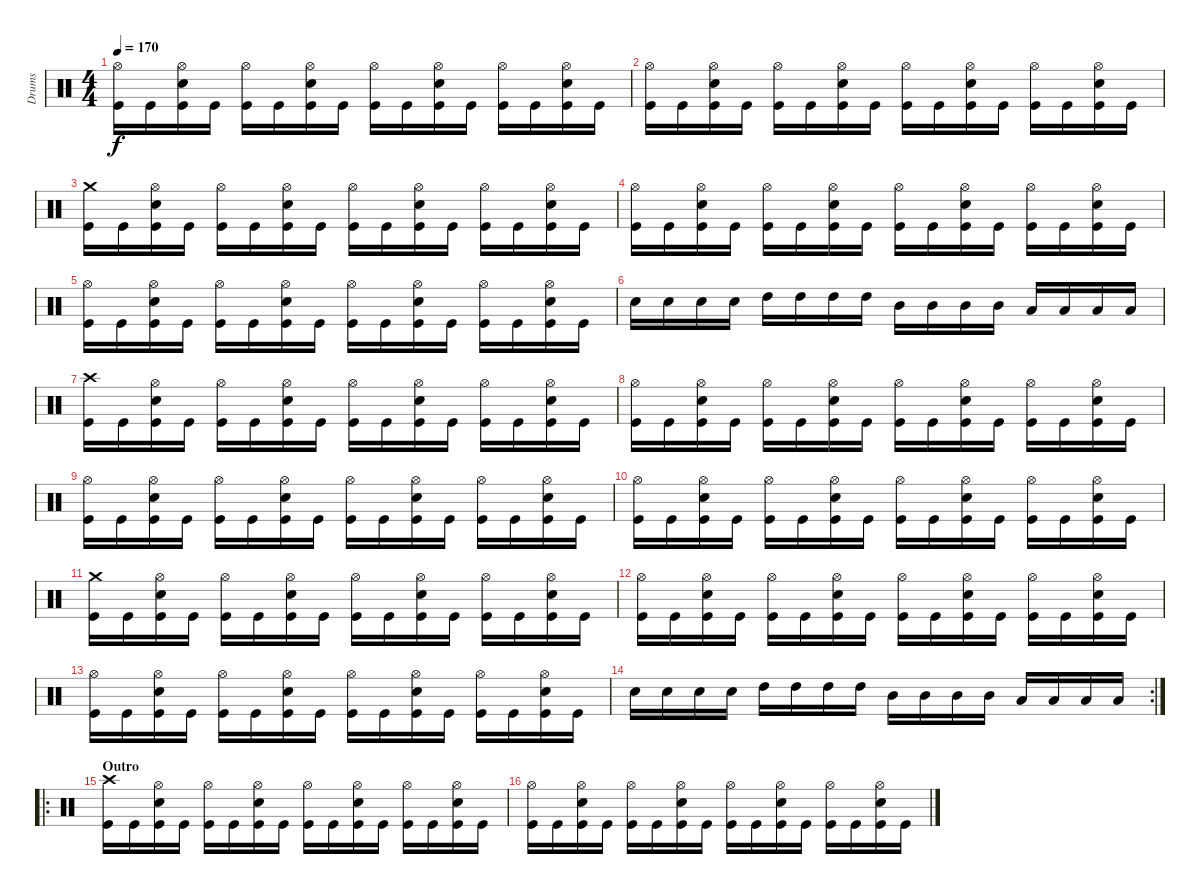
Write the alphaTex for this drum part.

\track ("Drums" "Drums") {instrument percussion}
\staff {score}
\articulation defaults
\ts (4 4)
\tempo 170
\clef neutral
\ks c
("Hi-Hat (open)" "Kick (hit)").16{dy f} "Kick (hit)".16 ("Hi-Hat (open)" "Snare (hit) 2" "Kick (hit)").16 "Kick (hit)".16 ("Hi-Hat (open)" "Kick (hit)").16 "Kick (hit)".16 ("Hi-Hat (open)" "Snare (hit) 2" "Kick (hit)").16 "Kick (hit)".16 ("Hi-Hat (open)" "Kick (hit)").16 "Kick (hit)".16 ("Hi-Hat (open)" "Snare (hit) 2" "Kick (hit)").16 "Kick (hit)".16 ("Hi-Hat (open)" "Kick (hit)").16 "Kick (hit)".16 ("Hi-Hat (open)" "Snare (hit) 2" "Kick (hit)").16 "Kick (hit)".16 |
("Hi-Hat (open)" "Kick (hit)").16 "Kick (hit)".16 ("Hi-Hat (open)" "Snare (hit) 2" "Kick (hit)").16 "Kick (hit)".16 ("Hi-Hat (open)" "Kick (hit)").16 "Kick (hit)".16 ("Hi-Hat (open)" "Snare (hit) 2" "Kick (hit)").16 "Kick (hit)".16 ("Hi-Hat (open)" "Kick (hit)").16 "Kick (hit)".16 ("Hi-Hat (open)" "Snare (hit) 2" "Kick (hit)").16 "Kick (hit)".16 ("Hi-Hat (open)" "Kick (hit)").16 "Kick (hit)".16 ("Hi-Hat (open)" "Snare (hit) 2" "Kick (hit)").16 "Kick (hit)".16 |
("Crash medium (hit)" "Kick (hit)").16 "Kick (hit)".16 ("Hi-Hat (open)" "Snare (hit) 2" "Kick (hit)").16 "Kick (hit)".16 ("Hi-Hat (open)" "Kick (hit)").16 "Kick (hit)".16 ("Hi-Hat (open)" "Snare (hit) 2" "Kick (hit)").16 "Kick (hit)".16 ("Hi-Hat (open)" "Kick (hit)").16 "Kick (hit)".16 ("Hi-Hat (open)" "Snare (hit) 2" "Kick (hit)").16 "Kick (hit)".16 ("Hi-Hat (open)" "Kick (hit)").16 "Kick (hit)".16 ("Hi-Hat (open)" "Snare (hit) 2" "Kick (hit)").16 "Kick (hit)".16 |
("Hi-Hat (open)" "Kick (hit)").16 "Kick (hit)".16 ("Hi-Hat (open)" "Snare (hit) 2" "Kick (hit)").16 "Kick (hit)".16 ("Hi-Hat (open)" "Kick (hit)").16 "Kick (hit)".16 ("Hi-Hat (open)" "Snare (hit) 2" "Kick (hit)").16 "Kick (hit)".16 ("Hi-Hat (open)" "Kick (hit)").16 "Kick (hit)".16 ("Hi-Hat (open)" "Snare (hit) 2" "Kick (hit)").16 "Kick (hit)".16 ("Hi-Hat (open)" "Kick (hit)").16 "Kick (hit)".16 ("Hi-Hat (open)" "Snare (hit) 2" "Kick (hit)").16 "Kick (hit)".16 |
("Hi-Hat (open)" "Kick (hit)").16 "Kick (hit)".16 ("Hi-Hat (open)" "Snare (hit) 2" "Kick (hit)").16 "Kick (hit)".16 ("Hi-Hat (open)" "Kick (hit)").16 "Kick (hit)".16 ("Hi-Hat (open)" "Snare (hit) 2" "Kick (hit)").16 "Kick (hit)".16 ("Hi-Hat (open)" "Kick (hit)").16 "Kick (hit)".16 ("Hi-Hat (open)" "Snare (hit) 2" "Kick (hit)").16 "Kick (hit)".16 ("Hi-Hat (open)" "Kick (hit)").16 "Kick (hit)".16 ("Hi-Hat (open)" "Snare (hit) 2" "Kick (hit)").16 "Kick (hit)".16 |
"Snare (hit) 2".16 "Snare (hit) 2".16 "Snare (hit) 2".16 "Snare (hit) 2".16 "High Tom (hit)".16 "High Tom (hit)".16 "High Tom (hit)".16 "High Tom (hit)".16 "Mid Tom (hit)".16 "Mid Tom (hit)".16 "Mid Tom (hit)".16 "Mid Tom (hit)".16 "Low Tom (hit)".16 "Low Tom (hit)".16 "Low Tom (hit)".16 "Low Tom (hit)".16 |
("Crash high (hit)" "Kick (hit)").16 "Kick (hit)".16 ("Hi-Hat (open)" "Snare (hit) 2" "Kick (hit)").16 "Kick (hit)".16 ("Hi-Hat (open)" "Kick (hit)").16 "Kick (hit)".16 ("Hi-Hat (open)" "Snare (hit) 2" "Kick (hit)").16 "Kick (hit)".16 ("Hi-Hat (open)" "Kick (hit)").16 "Kick (hit)".16 ("Hi-Hat (open)" "Snare (hit) 2" "Kick (hit)").16 "Kick (hit)".16 ("Hi-Hat (open)" "Kick (hit)").16 "Kick (hit)".16 ("Hi-Hat (open)" "Snare (hit) 2" "Kick (hit)").16 "Kick (hit)".16 |
("Hi-Hat (open)" "Kick (hit)").16 "Kick (hit)".16 ("Hi-Hat (open)" "Snare (hit) 2" "Kick (hit)").16 "Kick (hit)".16 ("Hi-Hat (open)" "Kick (hit)").16 "Kick (hit)".16 ("Hi-Hat (open)" "Snare (hit) 2" "Kick (hit)").16 "Kick (hit)".16 ("Hi-Hat (open)" "Kick (hit)").16 "Kick (hit)".16 ("Hi-Hat (open)" "Snare (hit) 2" "Kick (hit)").16 "Kick (hit)".16 ("Hi-Hat (open)" "Kick (hit)").16 "Kick (hit)".16 ("Hi-Hat (open)" "Snare (hit) 2" "Kick (hit)").16 "Kick (hit)".16 |
("Hi-Hat (open)" "Kick (hit)").16 "Kick (hit)".16 ("Hi-Hat (open)" "Snare (hit) 2" "Kick (hit)").16 "Kick (hit)".16 ("Hi-Hat (open)" "Kick (hit)").16 "Kick (hit)".16 ("Hi-Hat (open)" "Snare (hit) 2" "Kick (hit)").16 "Kick (hit)".16 ("Hi-Hat (open)" "Kick (hit)").16 "Kick (hit)".16 ("Hi-Hat (open)" "Snare (hit) 2" "Kick (hit)").16 "Kick (hit)".16 ("Hi-Hat (open)" "Kick (hit)").16 "Kick (hit)".16 ("Hi-Hat (open)" "Snare (hit) 2" "Kick (hit)").16 "Kick (hit)".16 |
("Hi-Hat (open)" "Kick (hit)").16 "Kick (hit)".16 ("Hi-Hat (open)" "Snare (hit) 2" "Kick (hit)").16 "Kick (hit)".16 ("Hi-Hat (open)" "Kick (hit)").16 "Kick (hit)".16 ("Hi-Hat (open)" "Snare (hit) 2" "Kick (hit)").16 "Kick (hit)".16 ("Hi-Hat (open)" "Kick (hit)").16 "Kick (hit)".16 ("Hi-Hat (open)" "Snare (hit) 2" "Kick (hit)").16 "Kick (hit)".16 ("Hi-Hat (open)" "Kick (hit)").16 "Kick (hit)".16 ("Hi-Hat (open)" "Snare (hit) 2" "Kick (hit)").16 "Kick (hit)".16 |
("Crash medium (hit)" "Kick (hit)").16 "Kick (hit)".16 ("Hi-Hat (open)" "Snare (hit) 2" "Kick (hit)").16 "Kick (hit)".16 ("Hi-Hat (open)" "Kick (hit)").16 "Kick (hit)".16 ("Hi-Hat (open)" "Snare (hit) 2" "Kick (hit)").16 "Kick (hit)".16 ("Hi-Hat (open)" "Kick (hit)").16 "Kick (hit)".16 ("Hi-Hat (open)" "Snare (hit) 2" "Kick (hit)").16 "Kick (hit)".16 ("Hi-Hat (open)" "Kick (hit)").16 "Kick (hit)".16 ("Hi-Hat (open)" "Snare (hit) 2" "Kick (hit)").16 "Kick (hit)".16 |
("Hi-Hat (open)" "Kick (hit)").16 "Kick (hit)".16 ("Hi-Hat (open)" "Snare (hit) 2" "Kick (hit)").16 "Kick (hit)".16 ("Hi-Hat (open)" "Kick (hit)").16 "Kick (hit)".16 ("Hi-Hat (open)" "Snare (hit) 2" "Kick (hit)").16 "Kick (hit)".16 ("Hi-Hat (open)" "Kick (hit)").16 "Kick (hit)".16 ("Hi-Hat (open)" "Snare (hit) 2" "Kick (hit)").16 "Kick (hit)".16 ("Hi-Hat (open)" "Kick (hit)").16 "Kick (hit)".16 ("Hi-Hat (open)" "Snare (hit) 2" "Kick (hit)").16 "Kick (hit)".16 |
("Hi-Hat (open)" "Kick (hit)").16 "Kick (hit)".16 ("Hi-Hat (open)" "Snare (hit) 2" "Kick (hit)").16 "Kick (hit)".16 ("Hi-Hat (open)" "Kick (hit)").16 "Kick (hit)".16 ("Hi-Hat (open)" "Snare (hit) 2" "Kick (hit)").16 "Kick (hit)".16 ("Hi-Hat (open)" "Kick (hit)").16 "Kick (hit)".16 ("Hi-Hat (open)" "Snare (hit) 2" "Kick (hit)").16 "Kick (hit)".16 ("Hi-Hat (open)" "Kick (hit)").16 "Kick (hit)".16 ("Hi-Hat (open)" "Snare (hit) 2" "Kick (hit)").16 "Kick (hit)".16 |
\rc 2 "Snare (hit) 2".16 "Snare (hit) 2".16 "Snare (hit) 2".16 "Snare (hit) 2".16 "High Tom (hit)".16 "High Tom (hit)".16 "High Tom (hit)".16 "High Tom (hit)".16 "Mid Tom (hit)".16 "Mid Tom (hit)".16 "Mid Tom (hit)".16 "Mid Tom (hit)".16 "Low Tom (hit)".16 "Low Tom (hit)".16 "Low Tom (hit)".16 "Low Tom (hit)".16
|
\ro
\section ("" "Outro")
("Crash high (hit)" "Kick (hit)").16 "Kick (hit)".16 ("Hi-Hat (open)" "Snare (hit) 2" "Kick (hit)").16 "Kick (hit)".16 ("Hi-Hat (open)" "Kick (hit)").16 "Kick (hit)".16 ("Hi-Hat (open)" "Snare (hit) 2" "Kick (hit)").16 "Kick (hit)".16 ("Hi-Hat (open)" "Kick (hit)").16 "Kick (hit)".16 ("Hi-Hat (open)" "Snare (hit) 2" "Kick (hit)").16 "Kick (hit)".16 ("Hi-Hat (open)" "Kick (hit)").16 "Kick (hit)".16 ("Hi-Hat (open)" "Snare (hit) 2" "Kick (hit)").16 "Kick (hit)".16 |
("Hi-Hat (open)" "Kick (hit)").16 "Kick (hit)".16 ("Hi-Hat (open)" "Snare (hit) 2" "Kick (hit)").16 "Kick (hit)".16 ("Hi-Hat (open)" "Kick (hit)").16 "Kick (hit)".16 ("Hi-Hat (open)" "Snare (hit) 2" "Kick (hit)").16 "Kick (hit)".16 ("Hi-Hat (open)" "Kick (hit)").16 "Kick (hit)".16 ("Hi-Hat (open)" "Snare (hit) 2" "Kick (hit)").16 "Kick (hit)".16 ("Hi-Hat (open)" "Kick (hit)").16 "Kick (hit)".16 ("Hi-Hat (open)" "Snare (hit) 2" "Kick (hit)").16 "Kick (hit)".16
